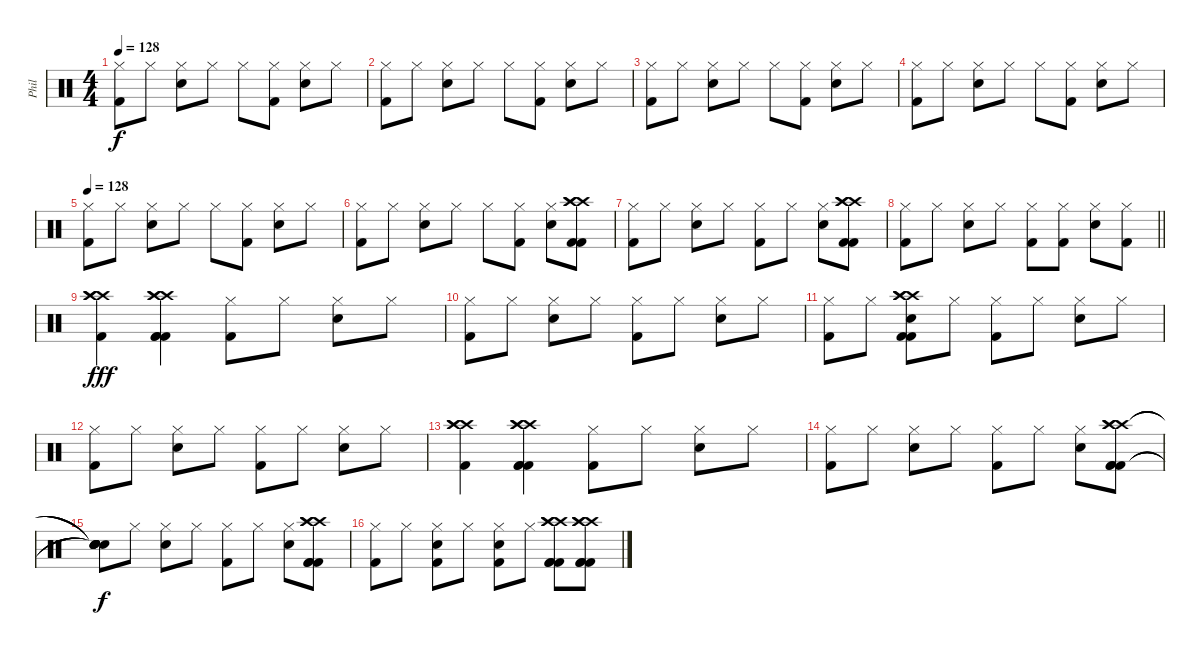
\track ("Phil" "Phil") {instrument percussion}
\staff {score}
\articulation defaults
\ts (4 4)
\tempo 128
\clef neutral
\ks c
("Hi-Hat (closed)" "Kick (hit) 2").8{dy f} "Hi-Hat (closed)".8 ("Hi-Hat (closed)" "Electric Snare (hit)").8 "Hi-Hat (closed)".8 "Hi-Hat (closed)".8 ("Hi-Hat (closed)" "Kick (hit) 2").8 ("Hi-Hat (closed)" "Electric Snare (hit)").8 "Hi-Hat (closed)".8 |
("Hi-Hat (closed)" "Kick (hit) 2").8 "Hi-Hat (closed)".8 ("Hi-Hat (closed)" "Electric Snare (hit)").8 "Hi-Hat (closed)".8 "Hi-Hat (closed)".8 ("Hi-Hat (closed)" "Kick (hit) 2").8 ("Hi-Hat (closed)" "Electric Snare (hit)").8 "Hi-Hat (closed)".8 |
("Hi-Hat (closed)" "Kick (hit) 2").8 "Hi-Hat (closed)".8 ("Hi-Hat (closed)" "Electric Snare (hit)").8 "Hi-Hat (closed)".8 "Hi-Hat (closed)".8 ("Hi-Hat (closed)" "Kick (hit) 2").8 ("Hi-Hat (closed)" "Electric Snare (hit)").8 "Hi-Hat (closed)".8 |
("Hi-Hat (closed)" "Kick (hit) 2").8 "Hi-Hat (closed)".8 ("Hi-Hat (closed)" "Electric Snare (hit)").8 "Hi-Hat (closed)".8 "Hi-Hat (closed)".8 ("Hi-Hat (closed)" "Kick (hit) 2").8 ("Hi-Hat (closed)" "Electric Snare (hit)").8 "Hi-Hat (closed)".8 |
\tempo 128
("Hi-Hat (closed)" "Kick (hit) 2").8 "Hi-Hat (closed)".8 ("Hi-Hat (closed)" "Electric Snare (hit)").8 "Hi-Hat (closed)".8 "Hi-Hat (closed)".8 ("Hi-Hat (closed)" "Kick (hit) 2").8 ("Hi-Hat (closed)" "Electric Snare (hit)").8 "Hi-Hat (closed)".8 |
("Hi-Hat (closed)" "Kick (hit) 2").8 "Hi-Hat (closed)".8 ("Hi-Hat (closed)" "Electric Snare (hit)").8 "Hi-Hat (closed)".8 "Hi-Hat (closed)".8 ("Hi-Hat (closed)" "Kick (hit) 2").8 ("Hi-Hat (closed)" "Electric Snare (hit)").8 ("Crash high (hit)" "Crash high (hit)" "Crash high (hit)" "Kick (hit) 2" "Kick (hit) 2").8 |
("Hi-Hat (closed)" "Kick (hit) 2").8 "Hi-Hat (closed)".8 ("Hi-Hat (closed)" "Electric Snare (hit)").8 "Hi-Hat (closed)".8 ("Hi-Hat (closed)" "Kick (hit) 2").8 "Hi-Hat (closed)".8 ("Hi-Hat (closed)" "Electric Snare (hit)").8 ("Crash high (hit)" "Crash high (hit)" "Crash high (hit)" "Kick (hit) 2" "Kick (hit) 2").8 |
\barLineRight lightlight
("Hi-Hat (closed)" "Kick (hit) 2").8 "Hi-Hat (closed)".8 ("Hi-Hat (closed)" "Electric Snare (hit)").8 "Hi-Hat (closed)".8 ("Hi-Hat (closed)" "Kick (hit) 2").8 ("Hi-Hat (closed)" "Kick (hit) 2").8 ("Hi-Hat (closed)" "Electric Snare (hit)").8 ("Hi-Hat (closed)" "Kick (hit) 2").8 |
("Crash high (hit)" "Crash high (hit)" "Crash high (hit)" "Kick (hit) 2").4{dy fff} ("Crash high (hit)" "Crash high (hit)" "Crash high (hit)" "Kick (hit) 2" "Kick (hit) 2" "Kick (hit) 2").4 ("Hi-Hat (closed)" "Kick (hit) 2").8 "Hi-Hat (closed)".8 ("Hi-Hat (closed)" "Electric Snare (hit)").8 "Hi-Hat (closed)".8 |
("Hi-Hat (closed)" "Kick (hit) 2").8 "Hi-Hat (closed)".8 ("Hi-Hat (closed)" "Electric Snare (hit)").8 "Hi-Hat (closed)".8 ("Hi-Hat (closed)" "Kick (hit) 2").8 "Hi-Hat (closed)".8 ("Hi-Hat (closed)" "Electric Snare (hit)").8 "Hi-Hat (closed)".8 |
("Hi-Hat (closed)" "Kick (hit) 2").8 "Hi-Hat (closed)".8 ("Crash high (hit)" "Crash high (hit)" "Crash high (hit)" "Electric Snare (hit)" "Kick (hit) 2" "Kick (hit) 2").8 "Hi-Hat (closed)".8 ("Hi-Hat (closed)" "Kick (hit) 2").8 "Hi-Hat (closed)".8 ("Hi-Hat (closed)" "Electric Snare (hit)").8 "Hi-Hat (closed)".8 |
("Hi-Hat (closed)" "Kick (hit) 2").8 "Hi-Hat (closed)".8 ("Hi-Hat (closed)" "Electric Snare (hit)").8 "Hi-Hat (closed)".8 ("Hi-Hat (closed)" "Kick (hit) 2").8 "Hi-Hat (closed)".8 ("Hi-Hat (closed)" "Electric Snare (hit)").8 "Hi-Hat (closed)".8 |
("Crash high (hit)" "Crash high (hit)" "Crash high (hit)" "Kick (hit) 2").4 ("Crash high (hit)" "Crash high (hit)" "Crash high (hit)" "Kick (hit) 2" "Kick (hit) 2" "Kick (hit) 2").4 ("Hi-Hat (closed)" "Kick (hit) 2").8 "Hi-Hat (closed)".8 ("Hi-Hat (closed)" "Electric Snare (hit)").8 "Hi-Hat (closed)".8 |
("Hi-Hat (closed)" "Kick (hit) 2").8 "Hi-Hat (closed)".8 ("Hi-Hat (closed)" "Electric Snare (hit)").8 "Hi-Hat (closed)".8 ("Hi-Hat (closed)" "Kick (hit) 2").8 "Hi-Hat (closed)".8 ("Hi-Hat (closed)" "Electric Snare (hit)").8 ("Crash high (hit)" "Crash high (hit)" "Crash high (hit)" "Kick (hit) 2" "Kick (hit) 2" "Kick (hit) 2").8 |
("Snare (hit)"{t} "Snare (hit)"{t} "Snare (hit)"{t} "Snare (hit)"{t} "Snare (hit)"{t} "Snare (hit)"{t}).8{dy f} "Hi-Hat (closed)".8 ("Hi-Hat (closed)" "Electric Snare (hit)").8 "Hi-Hat (closed)".8 ("Hi-Hat (closed)" "Kick (hit) 2").8 "Hi-Hat (closed)".8 ("Hi-Hat (closed)" "Electric Snare (hit)").8 ("Crash high (hit)" "Crash high (hit)" "Crash high (hit)" "Kick (hit) 2" "Kick (hit) 2" "Kick (hit) 2").8 |
("Hi-Hat (closed)" "Kick (hit) 2").8 "Hi-Hat (closed)".8 ("Hi-Hat (closed)" "Electric Snare (hit)" "Kick (hit) 2").8 "Hi-Hat (closed)".8 ("Hi-Hat (closed)" "Electric Snare (hit)" "Kick (hit) 2").8 "Hi-Hat (closed)".8 ("Crash high (hit)" "Crash high (hit)" "Crash high (hit)" "Kick (hit) 2" "Kick (hit) 2" "Kick (hit) 2").8 ("Crash high (hit)" "Crash high (hit)" "Crash high (hit)" "Kick (hit) 2" "Kick (hit) 2" "Kick (hit) 2").8
